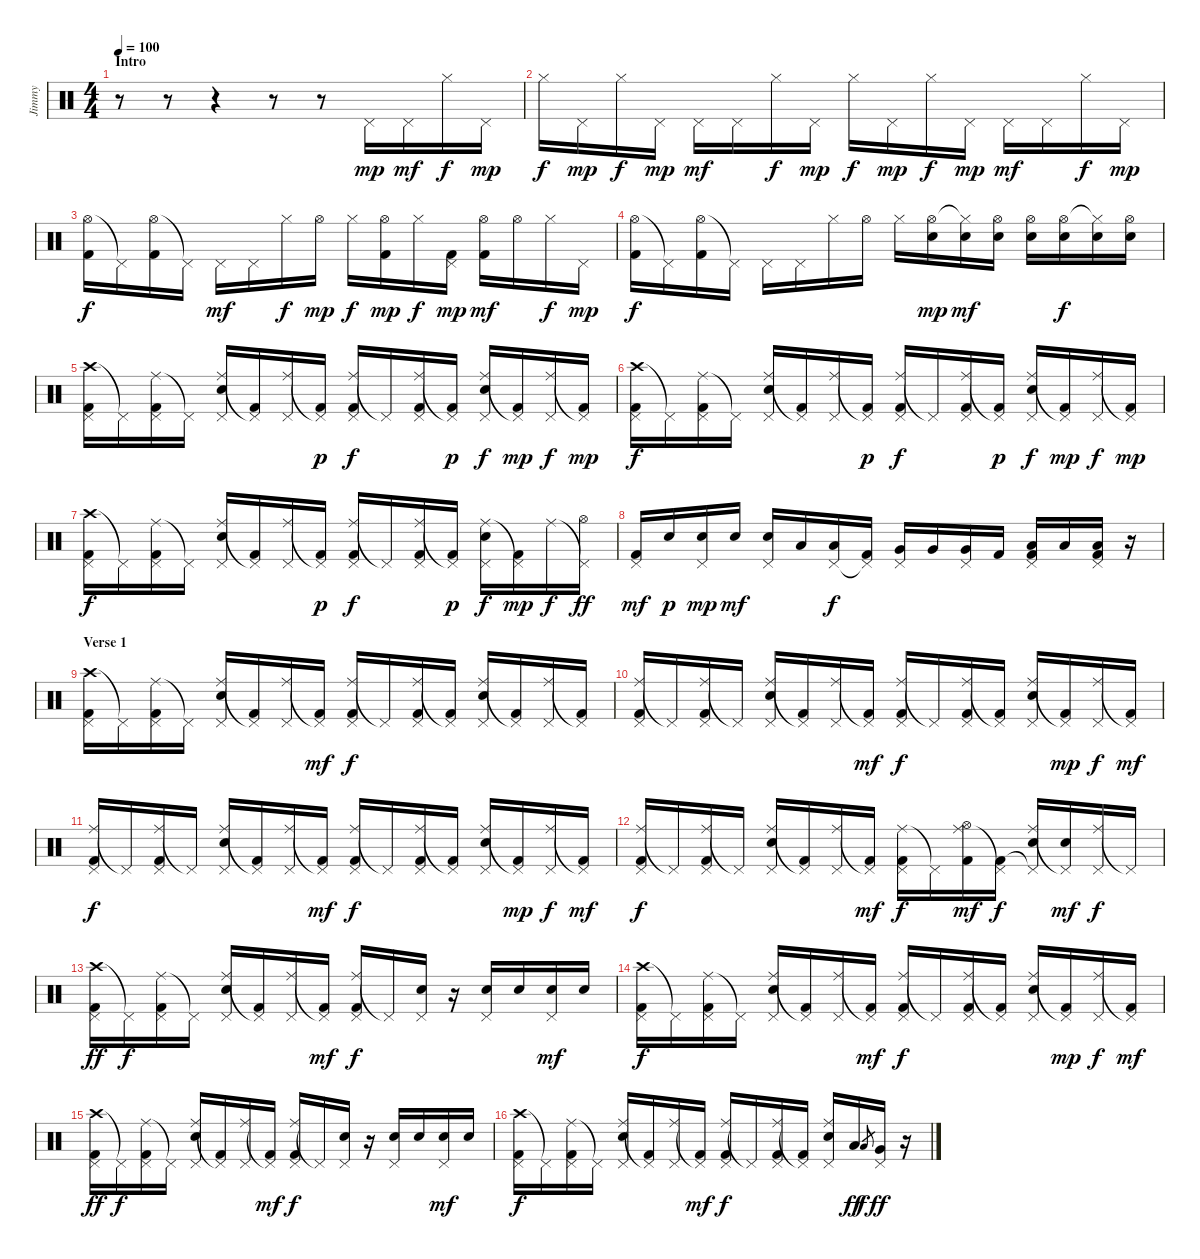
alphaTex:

\track ("Jimmy" "Jimmy") {instrument percussion}
\staff {score}
\articulation defaults
\ts (4 4)
\section ("" "Intro")
\tempo 100
\clef neutral
\ks c
r.8{dy mp} r.8 r.4 r.8 r.8 "Pedal Hi-Hat (hit)".16 "Pedal Hi-Hat (hit)".16{dy mf} "Hi-Hat (closed)".16{dy f} "Pedal Hi-Hat (hit)".16{dy mp} |
"Hi-Hat (closed)".16{dy f} "Pedal Hi-Hat (hit)".16{dy mp} "Hi-Hat (closed)".16{dy f} "Pedal Hi-Hat (hit)".16{dy mp} "Pedal Hi-Hat (hit)".16{dy mf} "Pedal Hi-Hat (hit)".16 "Hi-Hat (closed)".16{dy f} "Pedal Hi-Hat (hit)".16{dy mp} "Hi-Hat (closed)".16{dy f} "Pedal Hi-Hat (hit)".16{dy mp} "Hi-Hat (closed)".16{dy f} "Pedal Hi-Hat (hit)".16{dy mp} "Pedal Hi-Hat (hit)".16{dy mf} "Pedal Hi-Hat (hit)".16 "Hi-Hat (closed)".16{dy f} "Pedal Hi-Hat (hit)".16{dy mp} |
("Hi-Hat (open)" "Kick (hit) 2").16{dy f} "Pedal Hi-Hat (hit)"{t}.16 ("Hi-Hat (open)" "Kick (hit) 2").16 "Pedal Hi-Hat (hit)"{t}.16 "Pedal Hi-Hat (hit)".16{dy mf} "Pedal Hi-Hat (hit)".16 "Hi-Hat (closed)".16{dy f} "Hi-Hat (open)".16{dy mp} "Hi-Hat (closed)".16{dy f} ("Hi-Hat (open)" "Kick (hit) 2").16{dy mp} "Hi-Hat (closed)".16{dy f} ("Pedal Hi-Hat (hit)" "Kick (hit) 2").16{dy mp} ("Hi-Hat (open)" "Kick (hit) 2").16{dy mf} "Hi-Hat (open)".16 "Hi-Hat (closed)".16{dy f} "Pedal Hi-Hat (hit)".16{dy mp} |
("Hi-Hat (open)" "Kick (hit) 2").16{dy f} "Pedal Hi-Hat (hit)"{t}.16 ("Hi-Hat (open)" "Kick (hit) 2").16 "Pedal Hi-Hat (hit)"{t}.16 "Pedal Hi-Hat (hit)".16 "Pedal Hi-Hat (hit)".16 "Hi-Hat (closed)".16 "Hi-Hat (open)".16 "Hi-Hat (closed)".16 ("Hi-Hat (open)" "Electric Snare (hit)").16{dy mp} ("Hi-Hat (closed)"{t} "Electric Snare (hit)").16{dy mf} ("Hi-Hat (open)" "Electric Snare (hit)").16 ("Hi-Hat (open)" "Electric Snare (hit)").16 ("Hi-Hat (open)" "Electric Snare (hit)").16{dy f} ("Hi-Hat (closed)"{t} "Electric Snare (hit)").16 ("Hi-Hat (open)" "Electric Snare (hit)").16 |
("Crash high (hit)" "Pedal Hi-Hat (hit)" "Kick (hit) 2").16 "Pedal Hi-Hat (hit)"{t}.16 ("Ride (middle)" "Pedal Hi-Hat (hit)" "Kick (hit) 2").16 "Pedal Hi-Hat (hit)"{t}.16 ("Ride (middle)" "Pedal Hi-Hat (hit)" "Electric Snare (hit)").16 ("Pedal Hi-Hat (hit)"{t} "Kick (hit) 2").16 ("Ride (middle)" "Pedal Hi-Hat (hit)").16 ("Pedal Hi-Hat (hit)"{t} "Kick (hit) 2").16{dy p} ("Ride (middle)" "Pedal Hi-Hat (hit)" "Kick (hit) 2").16{dy f} "Pedal Hi-Hat (hit)"{t}.16 ("Ride (middle)" "Pedal Hi-Hat (hit)" "Kick (hit) 2").16 ("Pedal Hi-Hat (hit)"{t} "Kick (hit) 2").16{dy p} ("Ride (middle)" "Pedal Hi-Hat (hit)" "Electric Snare (hit)").16{dy f} ("Pedal Hi-Hat (hit)"{t} "Kick (hit) 2").16{dy mp} ("Ride (middle)" "Pedal Hi-Hat (hit)").16{dy f} ("Pedal Hi-Hat (hit)"{t} "Kick (hit) 2").16{dy mp} |
("Crash high (hit)" "Pedal Hi-Hat (hit)" "Kick (hit) 2").16{dy f} "Pedal Hi-Hat (hit)"{t}.16 ("Ride (middle)" "Pedal Hi-Hat (hit)" "Kick (hit) 2").16 "Pedal Hi-Hat (hit)"{t}.16 ("Ride (middle)" "Pedal Hi-Hat (hit)" "Electric Snare (hit)").16 ("Pedal Hi-Hat (hit)"{t} "Kick (hit) 2").16 ("Ride (middle)" "Pedal Hi-Hat (hit)").16 ("Pedal Hi-Hat (hit)"{t} "Kick (hit) 2").16{dy p} ("Ride (middle)" "Pedal Hi-Hat (hit)" "Kick (hit) 2").16{dy f} "Pedal Hi-Hat (hit)"{t}.16 ("Ride (middle)" "Pedal Hi-Hat (hit)" "Kick (hit) 2").16 ("Pedal Hi-Hat (hit)"{t} "Kick (hit) 2").16{dy p} ("Ride (middle)" "Pedal Hi-Hat (hit)" "Electric Snare (hit)").16{dy f} ("Pedal Hi-Hat (hit)"{t} "Kick (hit) 2").16{dy mp} ("Ride (middle)" "Pedal Hi-Hat (hit)").16{dy f} ("Pedal Hi-Hat (hit)"{t} "Kick (hit) 2").16{dy mp} |
("Crash high (hit)" "Pedal Hi-Hat (hit)" "Kick (hit) 2").16{dy f} "Pedal Hi-Hat (hit)"{t}.16 ("Ride (middle)" "Pedal Hi-Hat (hit)" "Kick (hit) 2").16 "Pedal Hi-Hat (hit)"{t}.16 ("Ride (middle)" "Pedal Hi-Hat (hit)" "Electric Snare (hit)").16 ("Pedal Hi-Hat (hit)"{t} "Kick (hit) 2").16 ("Ride (middle)" "Pedal Hi-Hat (hit)").16 ("Pedal Hi-Hat (hit)"{t} "Kick (hit) 2").16{dy p} ("Ride (middle)" "Pedal Hi-Hat (hit)" "Kick (hit) 2").16{dy f} "Pedal Hi-Hat (hit)"{t}.16 ("Ride (middle)" "Pedal Hi-Hat (hit)" "Kick (hit) 2").16 ("Pedal Hi-Hat (hit)"{t} "Kick (hit) 2").16{dy p} ("Ride (middle)" "Pedal Hi-Hat (hit)" "Electric Snare (hit)").16{dy f} ("Pedal Hi-Hat (hit)"{t} "Kick (hit) 2").16{dy mp} "Ride (middle)".16{dy f} ("Pedal Hi-Hat (hit)"{t} "Hi-Hat (open)").16{dy ff} |
("Pedal Hi-Hat (hit)" "Kick (hit) 2").16{dy mf} "Electric Snare (hit)".16{dy p} ("Pedal Hi-Hat (hit)" "Electric Snare (hit)").16{dy mp} "Electric Snare (hit)".16{dy mf} ("Pedal Hi-Hat (hit)" "Electric Snare (hit)").16 "Low Tom (hit)".16 ("Pedal Hi-Hat (hit)" "Low Tom (hit)").16{dy f} ("Pedal Hi-Hat (hit)"{t} "Kick (hit) 2").16 ("Pedal Hi-Hat (hit)" "Very Low Tom (hit)").16 "Very Low Tom (hit)".16 ("Pedal Hi-Hat (hit)" "Very Low Tom (hit)").16 "Kick (hit) 2".16 ("Pedal Hi-Hat (hit)" "Low Floor Tom (hit)" "Kick (hit) 2").16 "Low Floor Tom (hit)".16 ("Pedal Hi-Hat (hit)" "Low Floor Tom (hit)" "Kick (hit) 2").16 r.16 |
\section ("" "Verse 1")
("Crash high (hit)" "Pedal Hi-Hat (hit)" "Kick (hit) 2").16 "Pedal Hi-Hat (hit)"{t}.16 ("Ride (middle)" "Pedal Hi-Hat (hit)" "Kick (hit) 2").16 "Pedal Hi-Hat (hit)"{t}.16 ("Ride (middle)" "Pedal Hi-Hat (hit)" "Electric Snare (hit)").16 ("Pedal Hi-Hat (hit)"{t} "Kick (hit) 2").16 ("Ride (middle)" "Pedal Hi-Hat (hit)").16 ("Pedal Hi-Hat (hit)"{t} "Kick (hit) 2").16{dy mf} ("Ride (middle)" "Pedal Hi-Hat (hit)" "Kick (hit) 2").16{dy f} "Pedal Hi-Hat (hit)"{t}.16 ("Ride (middle)" "Pedal Hi-Hat (hit)" "Kick (hit) 2").16 ("Pedal Hi-Hat (hit)"{t} "Kick (hit) 2").16 ("Ride (middle)" "Pedal Hi-Hat (hit)" "Electric Snare (hit)").16 ("Pedal Hi-Hat (hit)"{t} "Kick (hit) 2").16 ("Ride (middle)" "Pedal Hi-Hat (hit)").16 ("Pedal Hi-Hat (hit)"{t} "Kick (hit) 2").16 |
("Ride (middle)" "Pedal Hi-Hat (hit)" "Kick (hit) 2").16 "Pedal Hi-Hat (hit)"{t}.16 ("Ride (middle)" "Pedal Hi-Hat (hit)" "Kick (hit) 2").16 "Pedal Hi-Hat (hit)"{t}.16 ("Ride (middle)" "Pedal Hi-Hat (hit)" "Electric Snare (hit)").16 ("Pedal Hi-Hat (hit)"{t} "Kick (hit) 2").16 ("Ride (middle)" "Pedal Hi-Hat (hit)").16 ("Pedal Hi-Hat (hit)"{t} "Kick (hit) 2").16{dy mf} ("Ride (middle)" "Pedal Hi-Hat (hit)" "Kick (hit) 2").16{dy f} "Pedal Hi-Hat (hit)"{t}.16 ("Ride (middle)" "Pedal Hi-Hat (hit)" "Kick (hit) 2").16 ("Pedal Hi-Hat (hit)"{t} "Kick (hit) 2").16 ("Ride (middle)" "Pedal Hi-Hat (hit)" "Electric Snare (hit)").16 ("Pedal Hi-Hat (hit)"{t} "Kick (hit) 2").16{dy mp} ("Ride (middle)" "Pedal Hi-Hat (hit)").16{dy f} ("Pedal Hi-Hat (hit)"{t} "Kick (hit) 2").16{dy mf} |
("Ride (middle)" "Pedal Hi-Hat (hit)" "Kick (hit) 2").16{dy f} "Pedal Hi-Hat (hit)"{t}.16 ("Ride (middle)" "Pedal Hi-Hat (hit)" "Kick (hit) 2").16 "Pedal Hi-Hat (hit)"{t}.16 ("Ride (middle)" "Pedal Hi-Hat (hit)" "Electric Snare (hit)").16 ("Pedal Hi-Hat (hit)"{t} "Kick (hit) 2").16 ("Ride (middle)" "Pedal Hi-Hat (hit)").16 ("Pedal Hi-Hat (hit)"{t} "Kick (hit) 2").16{dy mf} ("Ride (middle)" "Pedal Hi-Hat (hit)" "Kick (hit) 2").16{dy f} "Pedal Hi-Hat (hit)"{t}.16 ("Ride (middle)" "Pedal Hi-Hat (hit)" "Kick (hit) 2").16 ("Pedal Hi-Hat (hit)"{t} "Kick (hit) 2").16 ("Ride (middle)" "Pedal Hi-Hat (hit)" "Electric Snare (hit)").16 ("Pedal Hi-Hat (hit)"{t} "Kick (hit) 2").16{dy mp} ("Ride (middle)" "Pedal Hi-Hat (hit)").16{dy f} ("Pedal Hi-Hat (hit)"{t} "Kick (hit) 2").16{dy mf} |
("Ride (middle)" "Pedal Hi-Hat (hit)" "Kick (hit) 2").16{dy f} "Pedal Hi-Hat (hit)"{t}.16 ("Ride (middle)" "Pedal Hi-Hat (hit)" "Kick (hit) 2").16 "Pedal Hi-Hat (hit)"{t}.16 ("Ride (middle)" "Pedal Hi-Hat (hit)" "Electric Snare (hit)").16 ("Pedal Hi-Hat (hit)"{t} "Kick (hit) 2").16 ("Ride (middle)" "Pedal Hi-Hat (hit)").16 ("Pedal Hi-Hat (hit)"{t} "Kick (hit) 2").16{dy mf} ("Ride (middle)" "Pedal Hi-Hat (hit)" "Kick (hit) 2").16{dy f} "Pedal Hi-Hat (hit)"{t}.16 ("Ride (middle)" "Hi-Hat (open)" "Kick (hit) 2").16{dy mf} ("Pedal Hi-Hat (hit)"{t} "Kick (hit) 2").16{dy f} ("Ride (middle)" "Pedal Hi-Hat (hit)"{t} "Electric Snare (hit)").16 ("Pedal Hi-Hat (hit)"{t} "Electric Snare (hit)").16{dy mf} ("Ride (middle)" "Pedal Hi-Hat (hit)").16{dy f} "Pedal Hi-Hat (hit)"{t}.16 |
("Crash high (hit)" "Pedal Hi-Hat (hit)" "Kick (hit) 2").16{dy ff} "Pedal Hi-Hat (hit)"{t}.16{dy f} ("Ride (middle)" "Pedal Hi-Hat (hit)" "Kick (hit) 2").16 "Pedal Hi-Hat (hit)"{t}.16 ("Ride (middle)" "Pedal Hi-Hat (hit)" "Electric Snare (hit)").16 ("Pedal Hi-Hat (hit)"{t} "Kick (hit) 2").16 ("Ride (middle)" "Pedal Hi-Hat (hit)").16 ("Pedal Hi-Hat (hit)"{t} "Kick (hit) 2").16{dy mf} ("Ride (middle)" "Pedal Hi-Hat (hit)" "Kick (hit) 2").16{dy f} "Pedal Hi-Hat (hit)"{t}.16 ("Pedal Hi-Hat (hit)" "Electric Snare (hit)").16 r.16 ("Pedal Hi-Hat (hit)" "Electric Snare (hit)").16 "Electric Snare (hit)".16 ("Pedal Hi-Hat (hit)" "Electric Snare (hit)").16{dy mf} "Electric Snare (hit)".16 |
("Crash high (hit)" "Pedal Hi-Hat (hit)" "Kick (hit) 2").16{dy f} "Pedal Hi-Hat (hit)"{t}.16 ("Ride (middle)" "Pedal Hi-Hat (hit)" "Kick (hit) 2").16 "Pedal Hi-Hat (hit)"{t}.16 ("Ride (middle)" "Pedal Hi-Hat (hit)" "Electric Snare (hit)").16 ("Pedal Hi-Hat (hit)"{t} "Kick (hit) 2").16 ("Ride (middle)" "Pedal Hi-Hat (hit)").16 ("Pedal Hi-Hat (hit)"{t} "Kick (hit) 2").16{dy mf} ("Ride (middle)" "Pedal Hi-Hat (hit)" "Kick (hit) 2").16{dy f} "Pedal Hi-Hat (hit)"{t}.16 ("Ride (middle)" "Pedal Hi-Hat (hit)" "Kick (hit) 2").16 ("Pedal Hi-Hat (hit)"{t} "Kick (hit) 2").16 ("Ride (middle)" "Pedal Hi-Hat (hit)" "Electric Snare (hit)").16 ("Pedal Hi-Hat (hit)"{t} "Kick (hit) 2").16{dy mp} ("Ride (middle)" "Pedal Hi-Hat (hit)").16{dy f} ("Pedal Hi-Hat (hit)"{t} "Kick (hit) 2").16{dy mf} |
("Crash high (hit)" "Pedal Hi-Hat (hit)" "Kick (hit) 2").16{dy ff} "Pedal Hi-Hat (hit)"{t}.16{dy f} ("Ride (middle)" "Pedal Hi-Hat (hit)" "Kick (hit) 2").16 "Pedal Hi-Hat (hit)"{t}.16 ("Ride (middle)" "Pedal Hi-Hat (hit)" "Electric Snare (hit)").16 ("Pedal Hi-Hat (hit)"{t} "Kick (hit) 2").16 ("Ride (middle)" "Pedal Hi-Hat (hit)").16 ("Pedal Hi-Hat (hit)"{t} "Kick (hit) 2").16{dy mf} ("Ride (middle)" "Pedal Hi-Hat (hit)" "Kick (hit) 2").16{dy f} "Pedal Hi-Hat (hit)"{t}.16 ("Pedal Hi-Hat (hit)" "Electric Snare (hit)").16 r.16 ("Pedal Hi-Hat (hit)" "Electric Snare (hit)").16 "Electric Snare (hit)".16 ("Pedal Hi-Hat (hit)" "Electric Snare (hit)").16{dy mf} "Electric Snare (hit)".16 |
("Crash high (hit)" "Pedal Hi-Hat (hit)" "Kick (hit) 2").16{dy f} "Pedal Hi-Hat (hit)"{t}.16 ("Ride (middle)" "Pedal Hi-Hat (hit)" "Kick (hit) 2").16 "Pedal Hi-Hat (hit)"{t}.16 ("Ride (middle)" "Pedal Hi-Hat (hit)" "Electric Snare (hit)").16 ("Pedal Hi-Hat (hit)"{t} "Kick (hit) 2").16 ("Ride (middle)" "Pedal Hi-Hat (hit)").16 ("Pedal Hi-Hat (hit)"{t} "Kick (hit) 2").16{dy mf} ("Ride (middle)" "Pedal Hi-Hat (hit)" "Kick (hit) 2").16{dy f} "Pedal Hi-Hat (hit)"{t}.16 ("Ride (middle)" "Pedal Hi-Hat (hit)" "Kick (hit) 2").16 ("Pedal Hi-Hat (hit)"{t} "Kick (hit) 2").16 ("Ride (middle)" "Pedal Hi-Hat (hit)" "Electric Snare (hit)").16 "Low Tom (hit)".16{dy ff} "Low Tom (hit)".8{gr dy f} ("Pedal Hi-Hat (hit)" "Very Low Tom (hit)").16{dy ff} r.16
